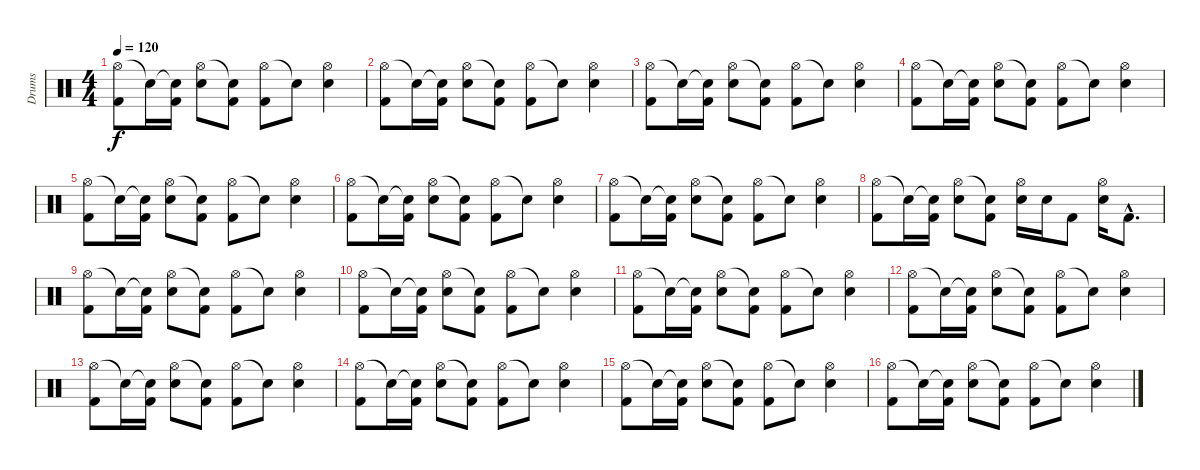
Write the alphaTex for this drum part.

\track ("Drums" "Drums") {instrument percussion}
\staff {score}
\articulation defaults
\ts (4 4)
\tempo 120
\clef neutral
\ks c
("Hi-Hat (open)" "Kick (hit) 2").8{dy f} "Snare (hit)"{t}.16 ("Snare (hit)"{t} "Kick (hit) 2").16 ("Hi-Hat (open)" "Snare (hit) 2").8 ("Snare (hit)"{t} "Kick (hit) 2").8 ("Hi-Hat (open)" "Kick (hit) 2").8 "Snare (hit)"{t}.8 ("Hi-Hat (open)" "Snare (hit) 2").4 |
("Hi-Hat (open)" "Kick (hit) 2").8 "Snare (hit)"{t}.16 ("Snare (hit)"{t} "Kick (hit) 2").16 ("Hi-Hat (open)" "Snare (hit) 2").8 ("Snare (hit)"{t} "Kick (hit) 2").8 ("Hi-Hat (open)" "Kick (hit) 2").8 "Snare (hit)"{t}.8 ("Hi-Hat (open)" "Snare (hit) 2").4 |
("Hi-Hat (open)" "Kick (hit) 2").8 "Snare (hit)"{t}.16 ("Snare (hit)"{t} "Kick (hit) 2").16 ("Hi-Hat (open)" "Snare (hit) 2").8 ("Snare (hit)"{t} "Kick (hit) 2").8 ("Hi-Hat (open)" "Kick (hit) 2").8 "Snare (hit)"{t}.8 ("Hi-Hat (open)" "Snare (hit) 2").4 |
("Hi-Hat (open)" "Kick (hit) 2").8 "Snare (hit)"{t}.16 ("Snare (hit)"{t} "Kick (hit) 2").16 ("Hi-Hat (open)" "Snare (hit) 2").8 ("Snare (hit)"{t} "Kick (hit) 2").8 ("Hi-Hat (open)" "Kick (hit) 2").8 "Snare (hit)"{t}.8 ("Hi-Hat (open)" "Snare (hit) 2").4 |
("Hi-Hat (open)" "Kick (hit) 2").8 "Snare (hit)"{t}.16 ("Snare (hit)"{t} "Kick (hit) 2").16 ("Hi-Hat (open)" "Snare (hit) 2").8 ("Snare (hit)"{t} "Kick (hit) 2").8 ("Hi-Hat (open)" "Kick (hit) 2").8 "Snare (hit)"{t}.8 ("Hi-Hat (open)" "Snare (hit) 2").4 |
("Hi-Hat (open)" "Kick (hit) 2").8 "Snare (hit)"{t}.16 ("Snare (hit)"{t} "Kick (hit) 2").16 ("Hi-Hat (open)" "Snare (hit) 2").8 ("Snare (hit)"{t} "Kick (hit) 2").8 ("Hi-Hat (open)" "Kick (hit) 2").8 "Snare (hit)"{t}.8 ("Hi-Hat (open)" "Snare (hit) 2").4 |
("Hi-Hat (open)" "Kick (hit) 2").8 "Snare (hit)"{t}.16 ("Snare (hit)"{t} "Kick (hit) 2").16 ("Hi-Hat (open)" "Snare (hit) 2").8 ("Snare (hit)"{t} "Kick (hit) 2").8 ("Hi-Hat (open)" "Kick (hit) 2").8 "Snare (hit)"{t}.8 ("Hi-Hat (open)" "Snare (hit) 2").4 |
("Hi-Hat (open)" "Kick (hit) 2").8 "Snare (hit)"{t}.16 ("Snare (hit)"{t} "Kick (hit) 2").16 ("Hi-Hat (open)" "Snare (hit) 2").8 ("Snare (hit)"{t} "Kick (hit) 2").8 ("Hi-Hat (open)" "Snare (hit) 2").16 "Snare (hit) 2".16 "Kick (hit) 2".8 ("Hi-Hat (open)" "Snare (hit) 2").16 "Kick (hit) 2"{hac}.8{d} |
("Hi-Hat (open)" "Kick (hit) 2").8 "Snare (hit)"{t}.16 ("Snare (hit)"{t} "Kick (hit) 2").16 ("Hi-Hat (open)" "Snare (hit) 2").8 ("Snare (hit)"{t} "Kick (hit) 2").8 ("Hi-Hat (open)" "Kick (hit) 2").8 "Snare (hit)"{t}.8 ("Hi-Hat (open)" "Snare (hit) 2").4 |
("Hi-Hat (open)" "Kick (hit) 2").8 "Snare (hit)"{t}.16 ("Snare (hit)"{t} "Kick (hit) 2").16 ("Hi-Hat (open)" "Snare (hit) 2").8 ("Snare (hit)"{t} "Kick (hit) 2").8 ("Hi-Hat (open)" "Kick (hit) 2").8 "Snare (hit)"{t}.8 ("Hi-Hat (open)" "Snare (hit) 2").4 |
("Hi-Hat (open)" "Kick (hit) 2").8 "Snare (hit)"{t}.16 ("Snare (hit)"{t} "Kick (hit) 2").16 ("Hi-Hat (open)" "Snare (hit) 2").8 ("Snare (hit)"{t} "Kick (hit) 2").8 ("Hi-Hat (open)" "Kick (hit) 2").8 "Snare (hit)"{t}.8 ("Hi-Hat (open)" "Snare (hit) 2").4 |
("Hi-Hat (open)" "Kick (hit) 2").8 "Snare (hit)"{t}.16 ("Snare (hit)"{t} "Kick (hit) 2").16 ("Hi-Hat (open)" "Snare (hit) 2").8 ("Snare (hit)"{t} "Kick (hit) 2").8 ("Hi-Hat (open)" "Kick (hit) 2").8 "Snare (hit)"{t}.8 ("Hi-Hat (open)" "Snare (hit) 2").4 |
("Hi-Hat (open)" "Kick (hit) 2").8 "Snare (hit)"{t}.16 ("Snare (hit)"{t} "Kick (hit) 2").16 ("Hi-Hat (open)" "Snare (hit) 2").8 ("Snare (hit)"{t} "Kick (hit) 2").8 ("Hi-Hat (open)" "Kick (hit) 2").8 "Snare (hit)"{t}.8 ("Hi-Hat (open)" "Snare (hit) 2").4 |
("Hi-Hat (open)" "Kick (hit) 2").8 "Snare (hit)"{t}.16 ("Snare (hit)"{t} "Kick (hit) 2").16 ("Hi-Hat (open)" "Snare (hit) 2").8 ("Snare (hit)"{t} "Kick (hit) 2").8 ("Hi-Hat (open)" "Kick (hit) 2").8 "Snare (hit)"{t}.8 ("Hi-Hat (open)" "Snare (hit) 2").4 |
("Hi-Hat (open)" "Kick (hit) 2").8 "Snare (hit)"{t}.16 ("Snare (hit)"{t} "Kick (hit) 2").16 ("Hi-Hat (open)" "Snare (hit) 2").8 ("Snare (hit)"{t} "Kick (hit) 2").8 ("Hi-Hat (open)" "Kick (hit) 2").8 "Snare (hit)"{t}.8 ("Hi-Hat (open)" "Snare (hit) 2").4 |
("Hi-Hat (open)" "Kick (hit) 2").8 "Snare (hit)"{t}.16 ("Snare (hit)"{t} "Kick (hit) 2").16 ("Hi-Hat (open)" "Snare (hit) 2").8 ("Snare (hit)"{t} "Kick (hit) 2").8 ("Hi-Hat (open)" "Kick (hit) 2").8 "Snare (hit)"{t}.8 ("Hi-Hat (open)" "Snare (hit) 2").4
